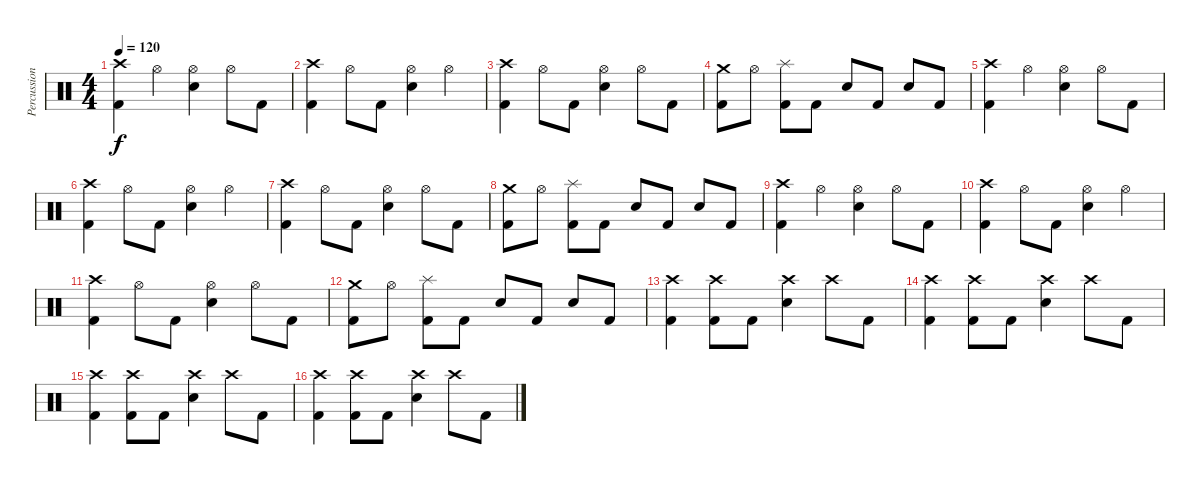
\track ("Percussions" "Percussion") {instrument percussion}
\staff {score}
\articulation defaults
\ts (4 4)
\tempo 120
\clef neutral
\ks c
("Crash high (hit)" "Kick (hit) 2").4{dy f} "Hi-Hat (open)".4 ("Hi-Hat (open)" "Electric Snare (hit)").4 "Hi-Hat (open)".8 "Kick (hit) 2".8 |
("Crash high (hit)" "Kick (hit) 2").4 "Hi-Hat (open)".8 "Kick (hit) 2".8 ("Hi-Hat (open)" "Electric Snare (hit)").4 "Hi-Hat (open)".4 |
("Crash high (hit)" "Kick (hit) 2").4 "Hi-Hat (open)".8 "Kick (hit) 2".8 ("Hi-Hat (open)" "Electric Snare (hit)").4 "Hi-Hat (open)".8 "Kick (hit) 2".8 |
("Crash medium (hit)" "Kick (hit) 2").8 "Hi-Hat (open)".8 ("Splash (hit)" "Kick (hit) 2").8 "Kick (hit) 2".8 "Electric Snare (hit)".8 "Kick (hit) 2".8 "Electric Snare (hit)".8 "Kick (hit) 2".8 |
("Crash high (hit)" "Kick (hit) 2").4 "Hi-Hat (open)".4 ("Hi-Hat (open)" "Electric Snare (hit)").4 "Hi-Hat (open)".8 "Kick (hit) 2".8 |
("Crash high (hit)" "Kick (hit) 2").4 "Hi-Hat (open)".8 "Kick (hit) 2".8 ("Hi-Hat (open)" "Electric Snare (hit)").4 "Hi-Hat (open)".4 |
("Crash high (hit)" "Kick (hit) 2").4 "Hi-Hat (open)".8 "Kick (hit) 2".8 ("Hi-Hat (open)" "Electric Snare (hit)").4 "Hi-Hat (open)".8 "Kick (hit) 2".8 |
("Crash medium (hit)" "Kick (hit) 2").8 "Hi-Hat (open)".8 ("Splash (hit)" "Kick (hit) 2").8 "Kick (hit) 2".8 "Electric Snare (hit)".8 "Kick (hit) 2".8 "Electric Snare (hit)".8 "Kick (hit) 2".8 |
("Crash high (hit)" "Kick (hit) 2").4 "Hi-Hat (open)".4 ("Hi-Hat (open)" "Electric Snare (hit)").4 "Hi-Hat (open)".8 "Kick (hit) 2".8 |
("Crash high (hit)" "Kick (hit) 2").4 "Hi-Hat (open)".8 "Kick (hit) 2".8 ("Hi-Hat (open)" "Electric Snare (hit)").4 "Hi-Hat (open)".4 |
("Crash high (hit)" "Kick (hit) 2").4 "Hi-Hat (open)".8 "Kick (hit) 2".8 ("Hi-Hat (open)" "Electric Snare (hit)").4 "Hi-Hat (open)".8 "Kick (hit) 2".8 |
("Crash medium (hit)" "Kick (hit) 2").8 "Hi-Hat (open)".8 ("Splash (hit)" "Kick (hit) 2").8 "Kick (hit) 2".8 "Electric Snare (hit)".8 "Kick (hit) 2".8 "Electric Snare (hit)".8 "Kick (hit) 2".8 |
("Crash high (hit)" "Kick (hit) 2").4 ("Crash high (hit)" "Kick (hit) 2").8 "Kick (hit) 2".8 ("Crash high (hit)" "Electric Snare (hit)").4 "Crash high (hit)".8 "Kick (hit) 2".8 |
("Crash high (hit)" "Kick (hit) 2").4 ("Crash high (hit)" "Kick (hit) 2").8 "Kick (hit) 2".8 ("Crash high (hit)" "Electric Snare (hit)").4 "Crash high (hit)".8 "Kick (hit) 2".8 |
("Crash high (hit)" "Kick (hit) 2").4 ("Crash high (hit)" "Kick (hit) 2").8 "Kick (hit) 2".8 ("Crash high (hit)" "Electric Snare (hit)").4 "Crash high (hit)".8 "Kick (hit) 2".8 |
("Crash high (hit)" "Kick (hit) 2").4 ("Crash high (hit)" "Kick (hit) 2").8 "Kick (hit) 2".8 ("Crash high (hit)" "Electric Snare (hit)").4 "Crash high (hit)".8 "Kick (hit) 2".8
